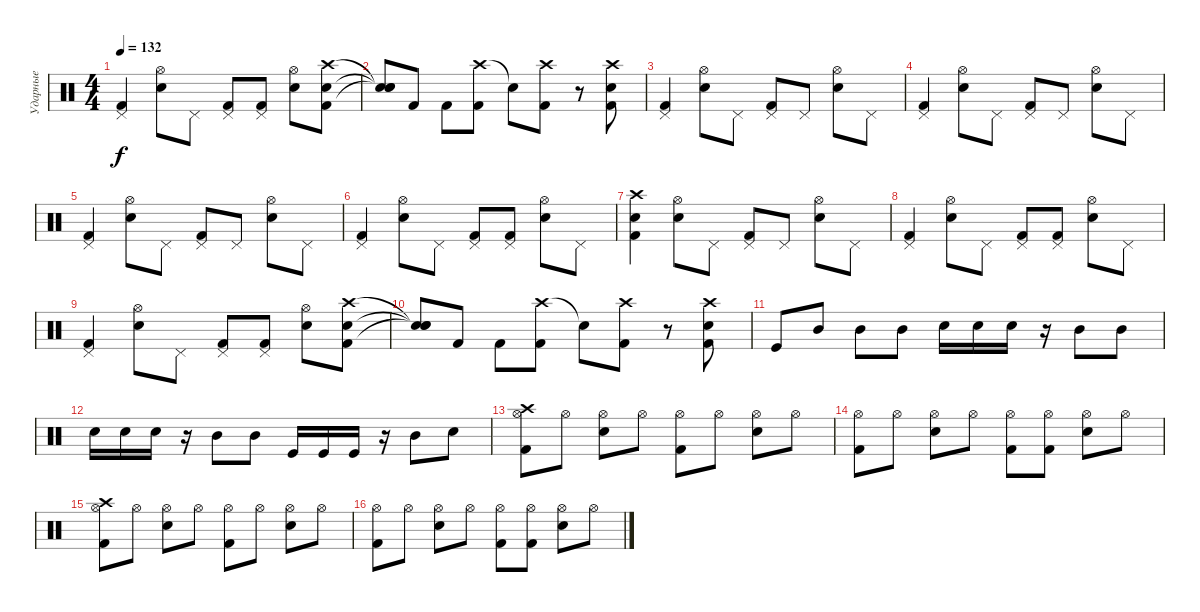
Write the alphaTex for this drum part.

\track ("Ударные" "Ударные") {instrument percussion}
\staff {score}
\articulation defaults
\ts (4 4)
\tempo 132
\clef neutral
\ks c
("Kick (hit) 2" "Pedal Hi-Hat (hit)").4{dy f} ("Hi-Hat (open)" "Electric Snare (hit)").8 "Pedal Hi-Hat (hit)".8 ("Kick (hit) 2" "Pedal Hi-Hat (hit)").8 ("Kick (hit) 2" "Pedal Hi-Hat (hit)").8 ("Electric Snare (hit)" "Hi-Hat (open)").8 ("Crash high (hit)" "Kick (hit) 2" "Electric Snare (hit)").8 |
("Snare (hit)"{t} "Snare (hit)"{t} "Snare (hit)"{t}).8 "Kick (hit) 2".8 "Kick (hit) 2".8 ("Crash high (hit)" "Kick (hit) 2").8 "Snare (hit)"{t}.8 ("Crash high (hit)" "Kick (hit) 2").8 r.8 ("Crash high (hit)" "Electric Snare (hit)" "Kick (hit) 2").8 |
("Pedal Hi-Hat (hit)" "Kick (hit) 2").4 ("Hi-Hat (open)" "Electric Snare (hit)").8 "Pedal Hi-Hat (hit)".8 ("Kick (hit) 2" "Pedal Hi-Hat (hit)").8 "Pedal Hi-Hat (hit)".8 ("Electric Snare (hit)" "Hi-Hat (open)").8 "Pedal Hi-Hat (hit)".8 |
("Pedal Hi-Hat (hit)" "Kick (hit) 2").4 ("Hi-Hat (open)" "Electric Snare (hit)").8 "Pedal Hi-Hat (hit)".8 ("Kick (hit) 2" "Pedal Hi-Hat (hit)").8 "Pedal Hi-Hat (hit)".8 ("Electric Snare (hit)" "Hi-Hat (open)").8 "Pedal Hi-Hat (hit)".8 |
("Pedal Hi-Hat (hit)" "Kick (hit) 2").4 ("Hi-Hat (open)" "Electric Snare (hit)").8 "Pedal Hi-Hat (hit)".8 ("Kick (hit) 2" "Pedal Hi-Hat (hit)").8 "Pedal Hi-Hat (hit)".8 ("Electric Snare (hit)" "Hi-Hat (open)").8 "Pedal Hi-Hat (hit)".8 |
("Kick (hit) 2" "Pedal Hi-Hat (hit)").4 ("Hi-Hat (open)" "Electric Snare (hit)").8 "Pedal Hi-Hat (hit)".8 ("Kick (hit) 2" "Pedal Hi-Hat (hit)").8 ("Kick (hit) 2" "Pedal Hi-Hat (hit)").8 ("Electric Snare (hit)" "Hi-Hat (open)").8 "Pedal Hi-Hat (hit)".8 |
("Electric Snare (hit)" "Kick (hit) 2" "Crash high (hit)").4 ("Hi-Hat (open)" "Electric Snare (hit)").8 "Pedal Hi-Hat (hit)".8 ("Kick (hit) 2" "Pedal Hi-Hat (hit)").8 "Pedal Hi-Hat (hit)".8 ("Electric Snare (hit)" "Hi-Hat (open)").8 "Pedal Hi-Hat (hit)".8 |
("Kick (hit) 2" "Pedal Hi-Hat (hit)").4 ("Hi-Hat (open)" "Electric Snare (hit)").8 "Pedal Hi-Hat (hit)".8 ("Kick (hit) 2" "Pedal Hi-Hat (hit)").8 ("Kick (hit) 2" "Pedal Hi-Hat (hit)").8 ("Electric Snare (hit)" "Hi-Hat (open)").8 "Pedal Hi-Hat (hit)".8 |
("Kick (hit) 2" "Pedal Hi-Hat (hit)").4 ("Hi-Hat (open)" "Electric Snare (hit)").8 "Pedal Hi-Hat (hit)".8 ("Kick (hit) 2" "Pedal Hi-Hat (hit)").8 ("Kick (hit) 2" "Pedal Hi-Hat (hit)").8 ("Electric Snare (hit)" "Hi-Hat (open)").8 ("Crash high (hit)" "Kick (hit) 2" "Electric Snare (hit)").8 |
("Snare (hit)"{t} "Snare (hit)"{t} "Snare (hit)"{t}).8 "Kick (hit) 2".8 "Kick (hit) 2".8 ("Crash high (hit)" "Kick (hit) 2").8 "Snare (hit)"{t}.8 ("Crash high (hit)" "Kick (hit) 2").8 r.8 ("Crash high (hit)" "Electric Snare (hit)" "Kick (hit) 2").8 |
"Kick (hit)".8 "Mid Tom (hit)".8 "Mid Tom (hit)".8 "Mid Tom (hit)".8 "Snare (hit) 2".16 "Snare (hit) 2".16 "Snare (hit) 2".16 r.16 "Mid Tom (hit)".8 "Mid Tom (hit)".8 |
"Snare (hit) 2".16 "Snare (hit) 2".16 "Snare (hit) 2".16 r.16 "Mid Tom (hit)".8 "Mid Tom (hit)".8 "Kick (hit)".16 "Kick (hit)".16 "Kick (hit)".16 r.16 "Mid Tom (hit)".8 "Electric Snare (hit)".8 |
("Crash high (hit)" "Hi-Hat (open)" "Kick (hit) 2").8 "Hi-Hat (open)".8 ("Hi-Hat (open)" "Electric Snare (hit)").8 "Hi-Hat (open)".8 ("Hi-Hat (open)" "Kick (hit) 2").8 "Hi-Hat (open)".8 ("Hi-Hat (open)" "Electric Snare (hit)").8 "Hi-Hat (open)".8 |
("Hi-Hat (open)" "Kick (hit) 2").8 "Hi-Hat (open)".8 ("Hi-Hat (open)" "Electric Snare (hit)").8 "Hi-Hat (open)".8 ("Hi-Hat (open)" "Kick (hit) 2").8 ("Hi-Hat (open)" "Kick (hit) 2").8 ("Hi-Hat (open)" "Electric Snare (hit)").8 "Hi-Hat (open)".8 |
("Crash high (hit)" "Hi-Hat (open)" "Kick (hit) 2").8 "Hi-Hat (open)".8 ("Hi-Hat (open)" "Electric Snare (hit)").8 "Hi-Hat (open)".8 ("Hi-Hat (open)" "Kick (hit) 2").8 "Hi-Hat (open)".8 ("Hi-Hat (open)" "Electric Snare (hit)").8 "Hi-Hat (open)".8 |
("Hi-Hat (open)" "Kick (hit) 2").8 "Hi-Hat (open)".8 ("Hi-Hat (open)" "Electric Snare (hit)").8 "Hi-Hat (open)".8 ("Hi-Hat (open)" "Kick (hit) 2").8 ("Hi-Hat (open)" "Kick (hit) 2").8 ("Hi-Hat (open)" "Electric Snare (hit)").8 "Hi-Hat (open)".8
